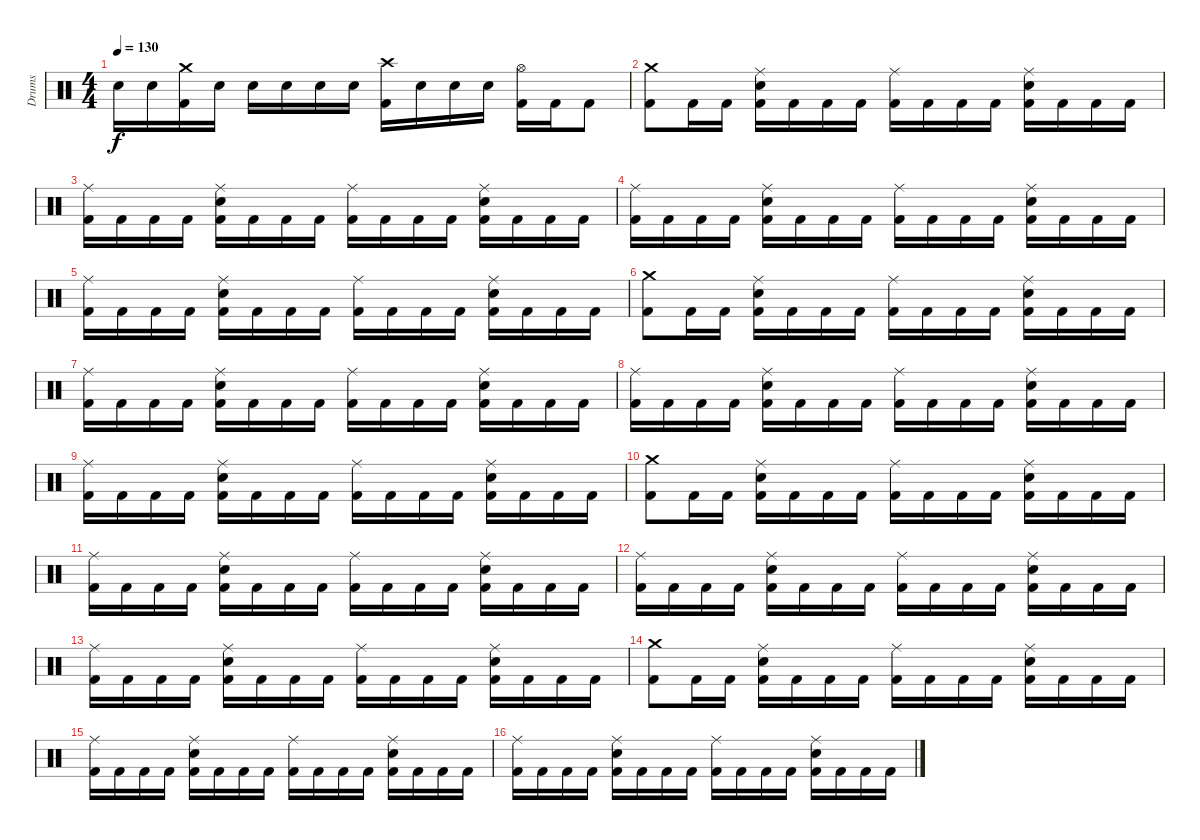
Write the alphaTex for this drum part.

\track ("Drums" "Drums") {instrument percussion}
\staff {score}
\articulation defaults
\ts (4 4)
\tempo 130
\clef neutral
\ks c "Snare (hit) 2".16{dy f} "Snare (hit) 2".16
("Crash medium (hit)" "Kick (hit) 2").16 "Snare (hit) 2".16 "Snare (hit) 2".16 "Snare (hit) 2".16 "Snare (hit) 2".16 "Snare (hit) 2".16 ("Crash high (hit)" "Kick (hit) 2").16 "Snare (hit) 2".16 "Snare (hit) 2".16 "Snare (hit) 2".16 ("Hi-Hat (open)" "Kick (hit) 2").16 "Kick (hit) 2".16 "Kick (hit) 2".8 |
("Crash medium (hit)" "Kick (hit) 2").8 "Kick (hit) 2".16 "Kick (hit) 2".16 ("Ride (middle)" "Snare (hit) 2" "Kick (hit) 2").16 "Kick (hit) 2".16 "Kick (hit) 2".16 "Kick (hit) 2".16 ("Ride (middle)" "Kick (hit) 2").16 "Kick (hit) 2".16 "Kick (hit) 2".16 "Kick (hit) 2".16 ("Ride (middle)" "Snare (hit) 2" "Kick (hit) 2").16 "Kick (hit) 2".16 "Kick (hit) 2".16 "Kick (hit) 2".16 |
("Ride (middle)" "Kick (hit) 2").16 "Kick (hit) 2".16 "Kick (hit) 2".16 "Kick (hit) 2".16 ("Ride (middle)" "Snare (hit) 2" "Kick (hit) 2").16 "Kick (hit) 2".16 "Kick (hit) 2".16 "Kick (hit) 2".16 ("Ride (middle)" "Kick (hit) 2").16 "Kick (hit) 2".16 "Kick (hit) 2".16 "Kick (hit) 2".16 ("Ride (middle)" "Snare (hit) 2" "Kick (hit) 2").16 "Kick (hit) 2".16 "Kick (hit) 2".16 "Kick (hit) 2".16 |
("Ride (middle)" "Kick (hit) 2").16 "Kick (hit) 2".16 "Kick (hit) 2".16 "Kick (hit) 2".16 ("Ride (middle)" "Snare (hit) 2" "Kick (hit) 2").16 "Kick (hit) 2".16 "Kick (hit) 2".16 "Kick (hit) 2".16 ("Ride (middle)" "Kick (hit) 2").16 "Kick (hit) 2".16 "Kick (hit) 2".16 "Kick (hit) 2".16 ("Ride (middle)" "Snare (hit) 2" "Kick (hit) 2").16 "Kick (hit) 2".16 "Kick (hit) 2".16 "Kick (hit) 2".16 |
("Ride (middle)" "Kick (hit) 2").16 "Kick (hit) 2".16 "Kick (hit) 2".16 "Kick (hit) 2".16 ("Ride (middle)" "Snare (hit) 2" "Kick (hit) 2").16 "Kick (hit) 2".16 "Kick (hit) 2".16 "Kick (hit) 2".16 ("Ride (middle)" "Kick (hit) 2").16 "Kick (hit) 2".16 "Kick (hit) 2".16 "Kick (hit) 2".16 ("Ride (middle)" "Snare (hit) 2" "Kick (hit) 2").16 "Kick (hit) 2".16 "Kick (hit) 2".16 "Kick (hit) 2".16 |
("Crash medium (hit)" "Kick (hit) 2").8 "Kick (hit) 2".16 "Kick (hit) 2".16 ("Ride (middle)" "Snare (hit) 2" "Kick (hit) 2").16 "Kick (hit) 2".16 "Kick (hit) 2".16 "Kick (hit) 2".16 ("Ride (middle)" "Kick (hit) 2").16 "Kick (hit) 2".16 "Kick (hit) 2".16 "Kick (hit) 2".16 ("Ride (middle)" "Snare (hit) 2" "Kick (hit) 2").16 "Kick (hit) 2".16 "Kick (hit) 2".16 "Kick (hit) 2".16 |
("Ride (middle)" "Kick (hit) 2").16 "Kick (hit) 2".16 "Kick (hit) 2".16 "Kick (hit) 2".16 ("Ride (middle)" "Snare (hit) 2" "Kick (hit) 2").16 "Kick (hit) 2".16 "Kick (hit) 2".16 "Kick (hit) 2".16 ("Ride (middle)" "Kick (hit) 2").16 "Kick (hit) 2".16 "Kick (hit) 2".16 "Kick (hit) 2".16 ("Ride (middle)" "Snare (hit) 2" "Kick (hit) 2").16 "Kick (hit) 2".16 "Kick (hit) 2".16 "Kick (hit) 2".16 |
("Ride (middle)" "Kick (hit) 2").16 "Kick (hit) 2".16 "Kick (hit) 2".16 "Kick (hit) 2".16 ("Ride (middle)" "Snare (hit) 2" "Kick (hit) 2").16 "Kick (hit) 2".16 "Kick (hit) 2".16 "Kick (hit) 2".16 ("Ride (middle)" "Kick (hit) 2").16 "Kick (hit) 2".16 "Kick (hit) 2".16 "Kick (hit) 2".16 ("Ride (middle)" "Snare (hit) 2" "Kick (hit) 2").16 "Kick (hit) 2".16 "Kick (hit) 2".16 "Kick (hit) 2".16 |
("Ride (middle)" "Kick (hit) 2").16 "Kick (hit) 2".16 "Kick (hit) 2".16 "Kick (hit) 2".16 ("Ride (middle)" "Snare (hit) 2" "Kick (hit) 2").16 "Kick (hit) 2".16 "Kick (hit) 2".16 "Kick (hit) 2".16 ("Ride (middle)" "Kick (hit) 2").16 "Kick (hit) 2".16 "Kick (hit) 2".16 "Kick (hit) 2".16 ("Ride (middle)" "Snare (hit) 2" "Kick (hit) 2").16 "Kick (hit) 2".16 "Kick (hit) 2".16 "Kick (hit) 2".16 |
("Crash medium (hit)" "Kick (hit) 2").8 "Kick (hit) 2".16 "Kick (hit) 2".16 ("Ride (middle)" "Snare (hit) 2" "Kick (hit) 2").16 "Kick (hit) 2".16 "Kick (hit) 2".16 "Kick (hit) 2".16 ("Ride (middle)" "Kick (hit) 2").16 "Kick (hit) 2".16 "Kick (hit) 2".16 "Kick (hit) 2".16 ("Ride (middle)" "Snare (hit) 2" "Kick (hit) 2").16 "Kick (hit) 2".16 "Kick (hit) 2".16 "Kick (hit) 2".16 |
("Ride (middle)" "Kick (hit) 2").16 "Kick (hit) 2".16 "Kick (hit) 2".16 "Kick (hit) 2".16 ("Ride (middle)" "Snare (hit) 2" "Kick (hit) 2").16 "Kick (hit) 2".16 "Kick (hit) 2".16 "Kick (hit) 2".16 ("Ride (middle)" "Kick (hit) 2").16 "Kick (hit) 2".16 "Kick (hit) 2".16 "Kick (hit) 2".16 ("Ride (middle)" "Snare (hit) 2" "Kick (hit) 2").16 "Kick (hit) 2".16 "Kick (hit) 2".16 "Kick (hit) 2".16 |
("Ride (middle)" "Kick (hit) 2").16 "Kick (hit) 2".16 "Kick (hit) 2".16 "Kick (hit) 2".16 ("Ride (middle)" "Snare (hit) 2" "Kick (hit) 2").16 "Kick (hit) 2".16 "Kick (hit) 2".16 "Kick (hit) 2".16 ("Ride (middle)" "Kick (hit) 2").16 "Kick (hit) 2".16 "Kick (hit) 2".16 "Kick (hit) 2".16 ("Ride (middle)" "Snare (hit) 2" "Kick (hit) 2").16 "Kick (hit) 2".16 "Kick (hit) 2".16 "Kick (hit) 2".16 |
("Ride (middle)" "Kick (hit) 2").16 "Kick (hit) 2".16 "Kick (hit) 2".16 "Kick (hit) 2".16 ("Ride (middle)" "Snare (hit) 2" "Kick (hit) 2").16 "Kick (hit) 2".16 "Kick (hit) 2".16 "Kick (hit) 2".16 ("Ride (middle)" "Kick (hit) 2").16 "Kick (hit) 2".16 "Kick (hit) 2".16 "Kick (hit) 2".16 ("Ride (middle)" "Snare (hit) 2" "Kick (hit) 2").16 "Kick (hit) 2".16 "Kick (hit) 2".16 "Kick (hit) 2".16 |
("Crash medium (hit)" "Kick (hit) 2").8 "Kick (hit) 2".16 "Kick (hit) 2".16 ("Ride (middle)" "Snare (hit) 2" "Kick (hit) 2").16 "Kick (hit) 2".16 "Kick (hit) 2".16 "Kick (hit) 2".16 ("Ride (middle)" "Kick (hit) 2").16 "Kick (hit) 2".16 "Kick (hit) 2".16 "Kick (hit) 2".16 ("Ride (middle)" "Snare (hit) 2" "Kick (hit) 2").16 "Kick (hit) 2".16 "Kick (hit) 2".16 "Kick (hit) 2".16 |
("Ride (middle)" "Kick (hit) 2").16 "Kick (hit) 2".16 "Kick (hit) 2".16 "Kick (hit) 2".16 ("Ride (middle)" "Snare (hit) 2" "Kick (hit) 2").16 "Kick (hit) 2".16 "Kick (hit) 2".16 "Kick (hit) 2".16 ("Ride (middle)" "Kick (hit) 2").16 "Kick (hit) 2".16 "Kick (hit) 2".16 "Kick (hit) 2".16 ("Ride (middle)" "Snare (hit) 2" "Kick (hit) 2").16 "Kick (hit) 2".16 "Kick (hit) 2".16 "Kick (hit) 2".16 |
("Ride (middle)" "Kick (hit) 2").16 "Kick (hit) 2".16 "Kick (hit) 2".16 "Kick (hit) 2".16 ("Ride (middle)" "Snare (hit) 2" "Kick (hit) 2").16 "Kick (hit) 2".16 "Kick (hit) 2".16 "Kick (hit) 2".16 ("Ride (middle)" "Kick (hit) 2").16 "Kick (hit) 2".16 "Kick (hit) 2".16 "Kick (hit) 2".16 ("Ride (middle)" "Snare (hit) 2" "Kick (hit) 2").16 "Kick (hit) 2".16 "Kick (hit) 2".16 "Kick (hit) 2".16
